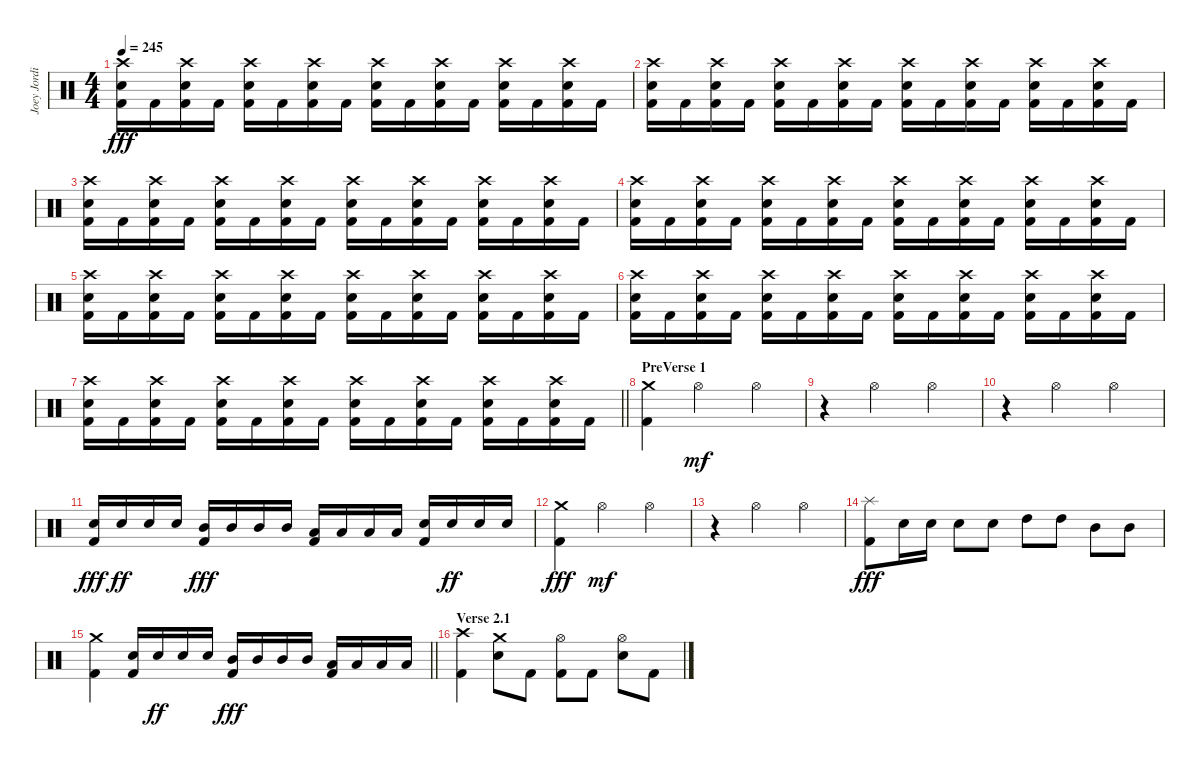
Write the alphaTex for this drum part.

\track ("Joey Jordison" "Joey Jordi") {instrument percussion}
\staff {score}
\articulation defaults
\ts (4 4)
\tempo 245
\clef neutral
\ks c
("Crash high (hit)" "Electric Snare (hit)" "Kick (hit) 2").16{dy fff} "Kick (hit) 2".16 ("Crash high (hit)" "Electric Snare (hit)" "Kick (hit) 2").16 "Kick (hit) 2".16 ("Crash high (hit)" "Electric Snare (hit)" "Kick (hit) 2").16 "Kick (hit) 2".16 ("Crash high (hit)" "Electric Snare (hit)" "Kick (hit) 2").16 "Kick (hit) 2".16 ("Crash high (hit)" "Electric Snare (hit)" "Kick (hit) 2").16 "Kick (hit) 2".16 ("Crash high (hit)" "Electric Snare (hit)" "Kick (hit) 2").16 "Kick (hit) 2".16 ("Crash high (hit)" "Electric Snare (hit)" "Kick (hit) 2").16 "Kick (hit) 2".16 ("Crash high (hit)" "Electric Snare (hit)" "Kick (hit) 2").16 "Kick (hit) 2".16 |
("Crash high (hit)" "Electric Snare (hit)" "Kick (hit) 2").16 "Kick (hit) 2".16 ("Crash high (hit)" "Electric Snare (hit)" "Kick (hit) 2").16 "Kick (hit) 2".16 ("Crash high (hit)" "Electric Snare (hit)" "Kick (hit) 2").16 "Kick (hit) 2".16 ("Crash high (hit)" "Electric Snare (hit)" "Kick (hit) 2").16 "Kick (hit) 2".16 ("Crash high (hit)" "Electric Snare (hit)" "Kick (hit) 2").16 "Kick (hit) 2".16 ("Crash high (hit)" "Electric Snare (hit)" "Kick (hit) 2").16 "Kick (hit) 2".16 ("Crash high (hit)" "Electric Snare (hit)" "Kick (hit) 2").16 "Kick (hit) 2".16 ("Crash high (hit)" "Electric Snare (hit)" "Kick (hit) 2").16 "Kick (hit) 2".16 |
("Crash high (hit)" "Electric Snare (hit)" "Kick (hit) 2").16 "Kick (hit) 2".16 ("Crash high (hit)" "Electric Snare (hit)" "Kick (hit) 2").16 "Kick (hit) 2".16 ("Crash high (hit)" "Electric Snare (hit)" "Kick (hit) 2").16 "Kick (hit) 2".16 ("Crash high (hit)" "Electric Snare (hit)" "Kick (hit) 2").16 "Kick (hit) 2".16 ("Crash high (hit)" "Electric Snare (hit)" "Kick (hit) 2").16 "Kick (hit) 2".16 ("Crash high (hit)" "Electric Snare (hit)" "Kick (hit) 2").16 "Kick (hit) 2".16 ("Crash high (hit)" "Electric Snare (hit)" "Kick (hit) 2").16 "Kick (hit) 2".16 ("Crash high (hit)" "Electric Snare (hit)" "Kick (hit) 2").16 "Kick (hit) 2".16 |
("Crash high (hit)" "Electric Snare (hit)" "Kick (hit) 2").16 "Kick (hit) 2".16 ("Crash high (hit)" "Electric Snare (hit)" "Kick (hit) 2").16 "Kick (hit) 2".16 ("Crash high (hit)" "Electric Snare (hit)" "Kick (hit) 2").16 "Kick (hit) 2".16 ("Crash high (hit)" "Electric Snare (hit)" "Kick (hit) 2").16 "Kick (hit) 2".16 ("Crash high (hit)" "Electric Snare (hit)" "Kick (hit) 2").16 "Kick (hit) 2".16 ("Crash high (hit)" "Electric Snare (hit)" "Kick (hit) 2").16 "Kick (hit) 2".16 ("Crash high (hit)" "Electric Snare (hit)" "Kick (hit) 2").16 "Kick (hit) 2".16 ("Crash high (hit)" "Electric Snare (hit)" "Kick (hit) 2").16 "Kick (hit) 2".16 |
("Crash high (hit)" "Electric Snare (hit)" "Kick (hit) 2").16 "Kick (hit) 2".16 ("Crash high (hit)" "Electric Snare (hit)" "Kick (hit) 2").16 "Kick (hit) 2".16 ("Crash high (hit)" "Electric Snare (hit)" "Kick (hit) 2").16 "Kick (hit) 2".16 ("Crash high (hit)" "Electric Snare (hit)" "Kick (hit) 2").16 "Kick (hit) 2".16 ("Crash high (hit)" "Electric Snare (hit)" "Kick (hit) 2").16 "Kick (hit) 2".16 ("Crash high (hit)" "Electric Snare (hit)" "Kick (hit) 2").16 "Kick (hit) 2".16 ("Crash high (hit)" "Electric Snare (hit)" "Kick (hit) 2").16 "Kick (hit) 2".16 ("Crash high (hit)" "Electric Snare (hit)" "Kick (hit) 2").16 "Kick (hit) 2".16 |
("Crash high (hit)" "Electric Snare (hit)" "Kick (hit) 2").16 "Kick (hit) 2".16 ("Crash high (hit)" "Electric Snare (hit)" "Kick (hit) 2").16 "Kick (hit) 2".16 ("Crash high (hit)" "Electric Snare (hit)" "Kick (hit) 2").16 "Kick (hit) 2".16 ("Crash high (hit)" "Electric Snare (hit)" "Kick (hit) 2").16 "Kick (hit) 2".16 ("Crash high (hit)" "Electric Snare (hit)" "Kick (hit) 2").16 "Kick (hit) 2".16 ("Crash high (hit)" "Electric Snare (hit)" "Kick (hit) 2").16 "Kick (hit) 2".16 ("Crash high (hit)" "Electric Snare (hit)" "Kick (hit) 2").16 "Kick (hit) 2".16 ("Crash high (hit)" "Electric Snare (hit)" "Kick (hit) 2").16 "Kick (hit) 2".16 |
\barLineRight lightlight
("Crash high (hit)" "Electric Snare (hit)" "Kick (hit) 2").16 "Kick (hit) 2".16 ("Crash high (hit)" "Electric Snare (hit)" "Kick (hit) 2").16 "Kick (hit) 2".16 ("Crash high (hit)" "Electric Snare (hit)" "Kick (hit) 2").16 "Kick (hit) 2".16 ("Crash high (hit)" "Electric Snare (hit)" "Kick (hit) 2").16 "Kick (hit) 2".16 ("Crash high (hit)" "Electric Snare (hit)" "Kick (hit) 2").16 "Kick (hit) 2".16 ("Crash high (hit)" "Electric Snare (hit)" "Kick (hit) 2").16 "Kick (hit) 2".16 ("Crash high (hit)" "Electric Snare (hit)" "Kick (hit) 2").16 "Kick (hit) 2".16 ("Crash high (hit)" "Electric Snare (hit)" "Kick (hit) 2").16 "Kick (hit) 2".16 |
\section ("" "PreVerse 1")
("Crash medium (hit)" "Kick (hit) 2").4 "Hi-Hat (open)".2{dy mf} "Hi-Hat (open)".4 |
r.4 "Hi-Hat (open)".2 "Hi-Hat (open)".4 |
r.4 "Hi-Hat (open)".2 "Hi-Hat (open)".4 |
("Electric Snare (hit)" "Kick (hit) 2").16{dy fff} "Electric Snare (hit)".16{dy ff} "Electric Snare (hit)".16 "Electric Snare (hit)".16 ("Mid Tom (hit)" "Kick (hit) 2").16{dy fff} "Mid Tom (hit)".16 "Mid Tom (hit)".16 "Mid Tom (hit)".16 ("Low Tom (hit)" "Kick (hit) 2").16 "Low Tom (hit)".16 "Low Tom (hit)".16 "Low Tom (hit)".16 ("Electric Snare (hit)" "Kick (hit) 2").16 "Electric Snare (hit)".16{dy ff} "Electric Snare (hit)".16 "Electric Snare (hit)".16 |
("Crash medium (hit)" "Kick (hit) 2").4{dy fff} "Hi-Hat (open)".2{dy mf} "Hi-Hat (open)".4 |
r.4 "Hi-Hat (open)".2 "Hi-Hat (open)".4 |
("Splash (hit)" "Kick (hit) 2").8{dy fff} "Electric Snare (hit)".16 "Electric Snare (hit)".16 "Electric Snare (hit)".8 "Electric Snare (hit)".8 "High Tom (hit)".8 "High Tom (hit)".8 "Mid Tom (hit)".8 "Mid Tom (hit)".8 |
\barLineRight lightlight
("Crash medium (hit)" "Kick (hit) 2").4 ("Electric Snare (hit)" "Kick (hit) 2").16 "Electric Snare (hit)".16{dy ff} "Electric Snare (hit)".16 "Electric Snare (hit)".16 ("Mid Tom (hit)" "Kick (hit) 2").16{dy fff} "Mid Tom (hit)".16 "Mid Tom (hit)".16 "Mid Tom (hit)".16 ("Low Tom (hit)" "Kick (hit) 2").16 "Low Tom (hit)".16 "Low Tom (hit)".16 "Low Tom (hit)".16 |
\section ("" "Verse 2.1")
("Crash high (hit)" "Kick (hit) 2").4 ("Crash medium (hit)" "Electric Snare (hit)").8 "Kick (hit) 2".8 ("Hi-Hat (open)" "Kick (hit) 2").8 "Kick (hit) 2".8 ("Hi-Hat (open)" "Electric Snare (hit)").8 "Kick (hit) 2".8
